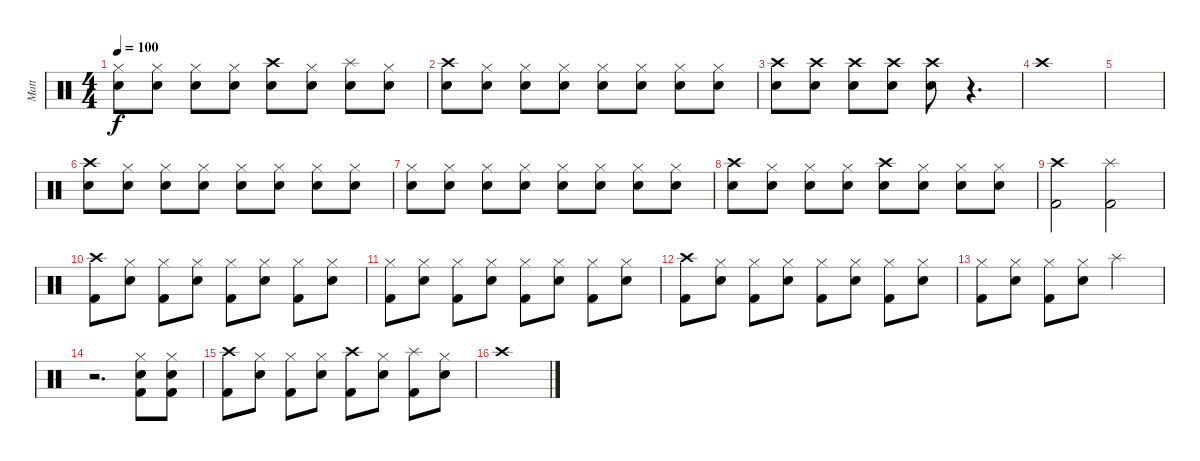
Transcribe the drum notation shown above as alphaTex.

\track ("Matt" "Matt") {instrument percussion}
\staff {score}
\articulation defaults
\ts (4 4)
\tempo 100
\clef neutral
\ks c
("Hi-Hat (closed)" "Electric Snare (hit)").8{dy f} ("Hi-Hat (closed)" "Electric Snare (hit)").8 ("Hi-Hat (closed)" "Electric Snare (hit)").8 ("Hi-Hat (closed)" "Electric Snare (hit)").8 ("Crash high (hit)" "Electric Snare (hit)").8 ("Hi-Hat (closed)" "Electric Snare (hit)").8 ("Splash (hit)" "Electric Snare (hit)").8 ("Hi-Hat (closed)" "Electric Snare (hit)").8 |
("Crash high (hit)" "Electric Snare (hit)").8 ("Hi-Hat (closed)" "Electric Snare (hit)").8 ("Hi-Hat (closed)" "Electric Snare (hit)").8 ("Hi-Hat (closed)" "Electric Snare (hit)").8 ("Hi-Hat (closed)" "Electric Snare (hit)").8 ("Hi-Hat (closed)" "Electric Snare (hit)").8 ("Hi-Hat (closed)" "Electric Snare (hit)").8 ("Hi-Hat (closed)" "Electric Snare (hit)").8 |
("Crash high (hit)" "Electric Snare (hit)").8 ("Crash high (hit)" "Electric Snare (hit)").8 ("Crash high (hit)" "Electric Snare (hit)").8 ("Crash high (hit)" "Electric Snare (hit)").8 ("Crash high (hit)" "Electric Snare (hit)").8 r.4{d} |
"Crash high (hit)".1 |
|
("Crash high (hit)" "Electric Snare (hit)").8 ("Hi-Hat (closed)" "Electric Snare (hit)").8 ("Hi-Hat (closed)" "Electric Snare (hit)").8 ("Hi-Hat (closed)" "Electric Snare (hit)").8 ("Hi-Hat (closed)" "Electric Snare (hit)").8 ("Hi-Hat (closed)" "Electric Snare (hit)").8 ("Hi-Hat (closed)" "Electric Snare (hit)").8 ("Hi-Hat (closed)" "Electric Snare (hit)").8 |
("Hi-Hat (closed)" "Electric Snare (hit)").8 ("Hi-Hat (closed)" "Electric Snare (hit)").8 ("Hi-Hat (closed)" "Electric Snare (hit)").8 ("Hi-Hat (closed)" "Electric Snare (hit)").8 ("Hi-Hat (closed)" "Electric Snare (hit)").8 ("Hi-Hat (closed)" "Electric Snare (hit)").8 ("Hi-Hat (closed)" "Electric Snare (hit)").8 ("Hi-Hat (closed)" "Electric Snare (hit)").8 |
("Crash high (hit)" "Electric Snare (hit)").8 ("Hi-Hat (closed)" "Electric Snare (hit)").8 ("Hi-Hat (closed)" "Electric Snare (hit)").8 ("Hi-Hat (closed)" "Electric Snare (hit)").8 ("Crash high (hit)" "Electric Snare (hit)").8 ("Hi-Hat (closed)" "Electric Snare (hit)").8 ("Hi-Hat (closed)" "Electric Snare (hit)").8 ("Hi-Hat (closed)" "Electric Snare (hit)").8 |
("Crash high (hit)" "Kick (hit) 2").2 ("Splash (hit)" "Kick (hit) 2").2 |
("Crash high (hit)" "Kick (hit) 2").8 ("Hi-Hat (closed)" "Electric Snare (hit)").8 ("Hi-Hat (closed)" "Kick (hit) 2").8 ("Hi-Hat (closed)" "Electric Snare (hit)").8 ("Hi-Hat (closed)" "Kick (hit) 2").8 ("Hi-Hat (closed)" "Electric Snare (hit)").8 ("Hi-Hat (closed)" "Kick (hit) 2").8 ("Hi-Hat (closed)" "Electric Snare (hit)").8 |
("Hi-Hat (closed)" "Kick (hit) 2").8 ("Hi-Hat (closed)" "Electric Snare (hit)").8 ("Hi-Hat (closed)" "Kick (hit) 2").8 ("Hi-Hat (closed)" "Electric Snare (hit)").8 ("Hi-Hat (closed)" "Kick (hit) 2").8 ("Hi-Hat (closed)" "Electric Snare (hit)").8 ("Hi-Hat (closed)" "Kick (hit) 2").8 ("Hi-Hat (closed)" "Electric Snare (hit)").8 |
("Crash high (hit)" "Kick (hit) 2").8 ("Hi-Hat (closed)" "Electric Snare (hit)").8 ("Hi-Hat (closed)" "Kick (hit) 2").8 ("Hi-Hat (closed)" "Electric Snare (hit)").8 ("Hi-Hat (closed)" "Kick (hit) 2").8 ("Hi-Hat (closed)" "Electric Snare (hit)").8 ("Hi-Hat (closed)" "Kick (hit) 2").8 ("Hi-Hat (closed)" "Electric Snare (hit)").8 |
("Hi-Hat (closed)" "Kick (hit) 2").8 ("Hi-Hat (closed)" "Electric Snare (hit)").8 ("Hi-Hat (closed)" "Kick (hit) 2").8 ("Hi-Hat (closed)" "Electric Snare (hit)").8 "Splash (hit)".2 |
r.2{d} ("Hi-Hat (closed)" "Electric Snare (hit)" "Kick (hit) 2").8 ("Hi-Hat (closed)" "Electric Snare (hit)" "Kick (hit) 2").8 |
("Crash high (hit)" "Kick (hit) 2").8 ("Hi-Hat (closed)" "Electric Snare (hit)").8 ("Hi-Hat (closed)" "Kick (hit) 2").8 ("Hi-Hat (closed)" "Electric Snare (hit)").8 ("Crash high (hit)" "Kick (hit) 2").8 ("Hi-Hat (closed)" "Electric Snare (hit)").8 ("Splash (hit)" "Kick (hit) 2").8 ("Hi-Hat (closed)" "Electric Snare (hit)").8 |
"Crash high (hit)".1
